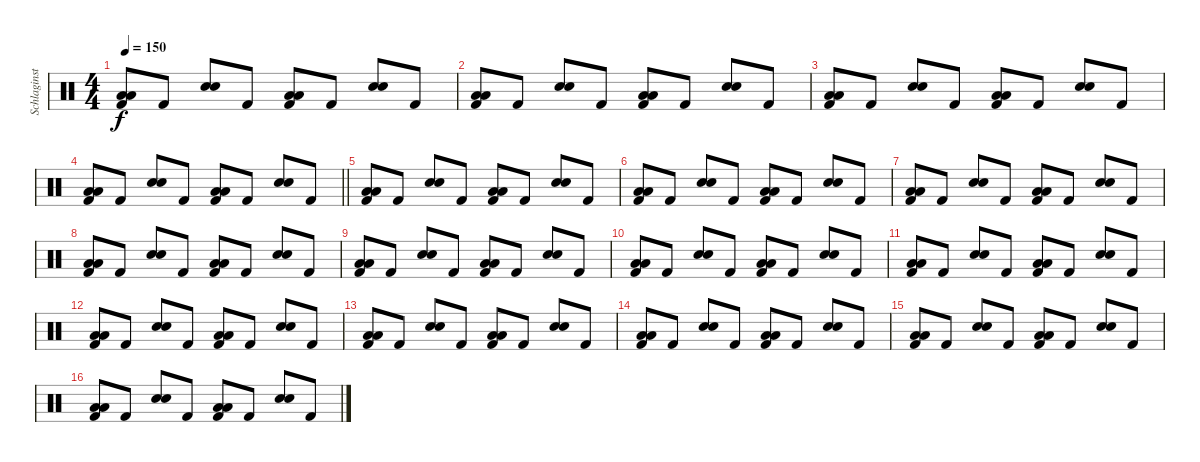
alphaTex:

\track ("Schlaginstrumente - Auswahl" "Schlaginst") {instrument percussion}
\staff {score}
\articulation defaults
\ts (4 4)
\tempo 150
\clef neutral
\ks c
("Low Tom (hit)" "Low Tom (hit)" "Kick (hit) 2").8{dy f} "Kick (hit) 2".8 ("Snare (hit) 2" "Snare (hit) 2").8{bd 120} "Kick (hit) 2".8 ("Low Tom (hit)" "Low Tom (hit)" "Kick (hit) 2").8 "Kick (hit) 2".8 ("Snare (hit) 2" "Snare (hit) 2").8{bd 120} "Kick (hit) 2".8 |
("Low Tom (hit)" "Low Tom (hit)" "Kick (hit) 2").8 "Kick (hit) 2".8 ("Snare (hit) 2" "Snare (hit) 2").8{bd 120} "Kick (hit) 2".8 ("Low Tom (hit)" "Low Tom (hit)" "Kick (hit) 2").8 "Kick (hit) 2".8 ("Snare (hit) 2" "Snare (hit) 2").8{bd 120} "Kick (hit) 2".8 |
("Low Tom (hit)" "Low Tom (hit)" "Kick (hit) 2").8 "Kick (hit) 2".8 ("Snare (hit) 2" "Snare (hit) 2").8{bd 120} "Kick (hit) 2".8 ("Low Tom (hit)" "Low Tom (hit)" "Kick (hit) 2").8 "Kick (hit) 2".8 ("Snare (hit) 2" "Snare (hit) 2").8{bd 120} "Kick (hit) 2".8 |
\barLineRight lightlight
("Low Tom (hit)" "Low Tom (hit)" "Kick (hit) 2").8 "Kick (hit) 2".8 ("Snare (hit) 2" "Snare (hit) 2").8{bd 120} "Kick (hit) 2".8 ("Low Tom (hit)" "Low Tom (hit)" "Kick (hit) 2").8 "Kick (hit) 2".8 ("Snare (hit) 2" "Snare (hit) 2").8{bd 120} "Kick (hit) 2".8 |
("Low Tom (hit)" "Low Tom (hit)" "Kick (hit) 2").8 "Kick (hit) 2".8 ("Snare (hit) 2" "Snare (hit) 2").8{bd 120} "Kick (hit) 2".8 ("Low Tom (hit)" "Low Tom (hit)" "Kick (hit) 2").8 "Kick (hit) 2".8 ("Snare (hit) 2" "Snare (hit) 2").8{bd 120} "Kick (hit) 2".8 |
("Low Tom (hit)" "Low Tom (hit)" "Kick (hit) 2").8 "Kick (hit) 2".8 ("Snare (hit) 2" "Snare (hit) 2").8{bd 120} "Kick (hit) 2".8 ("Low Tom (hit)" "Low Tom (hit)" "Kick (hit) 2").8 "Kick (hit) 2".8 ("Snare (hit) 2" "Snare (hit) 2").8{bd 120} "Kick (hit) 2".8 |
("Low Tom (hit)" "Low Tom (hit)" "Kick (hit) 2").8 "Kick (hit) 2".8 ("Snare (hit) 2" "Snare (hit) 2").8{bd 120} "Kick (hit) 2".8 ("Low Tom (hit)" "Low Tom (hit)" "Kick (hit) 2").8 "Kick (hit) 2".8 ("Snare (hit) 2" "Snare (hit) 2").8{bd 120} "Kick (hit) 2".8 |
("Low Tom (hit)" "Low Tom (hit)" "Kick (hit) 2").8 "Kick (hit) 2".8 ("Snare (hit) 2" "Snare (hit) 2").8{bd 120} "Kick (hit) 2".8 ("Low Tom (hit)" "Low Tom (hit)" "Kick (hit) 2").8 "Kick (hit) 2".8 ("Snare (hit) 2" "Snare (hit) 2").8{bd 120} "Kick (hit) 2".8 |
("Low Tom (hit)" "Low Tom (hit)" "Kick (hit) 2").8 "Kick (hit) 2".8 ("Snare (hit) 2" "Snare (hit) 2").8{bd 120} "Kick (hit) 2".8 ("Low Tom (hit)" "Low Tom (hit)" "Kick (hit) 2").8 "Kick (hit) 2".8 ("Snare (hit) 2" "Snare (hit) 2").8{bd 120} "Kick (hit) 2".8 |
("Low Tom (hit)" "Low Tom (hit)" "Kick (hit) 2").8 "Kick (hit) 2".8 ("Snare (hit) 2" "Snare (hit) 2").8{bd 120} "Kick (hit) 2".8 ("Low Tom (hit)" "Low Tom (hit)" "Kick (hit) 2").8 "Kick (hit) 2".8 ("Snare (hit) 2" "Snare (hit) 2").8{bd 120} "Kick (hit) 2".8 |
("Low Tom (hit)" "Low Tom (hit)" "Kick (hit) 2").8 "Kick (hit) 2".8 ("Snare (hit) 2" "Snare (hit) 2").8{bd 120} "Kick (hit) 2".8 ("Low Tom (hit)" "Low Tom (hit)" "Kick (hit) 2").8 "Kick (hit) 2".8 ("Snare (hit) 2" "Snare (hit) 2").8{bd 120} "Kick (hit) 2".8 |
("Low Tom (hit)" "Low Tom (hit)" "Kick (hit) 2").8 "Kick (hit) 2".8 ("Snare (hit) 2" "Snare (hit) 2").8{bd 120} "Kick (hit) 2".8 ("Low Tom (hit)" "Low Tom (hit)" "Kick (hit) 2").8 "Kick (hit) 2".8 ("Snare (hit) 2" "Snare (hit) 2").8{bd 120} "Kick (hit) 2".8 |
("Low Tom (hit)" "Low Tom (hit)" "Kick (hit) 2").8 "Kick (hit) 2".8 ("Snare (hit) 2" "Snare (hit) 2").8{bd 120} "Kick (hit) 2".8 ("Low Tom (hit)" "Low Tom (hit)" "Kick (hit) 2").8 "Kick (hit) 2".8 ("Snare (hit) 2" "Snare (hit) 2").8{bd 120} "Kick (hit) 2".8 |
("Low Tom (hit)" "Low Tom (hit)" "Kick (hit) 2").8 "Kick (hit) 2".8 ("Snare (hit) 2" "Snare (hit) 2").8{bd 120} "Kick (hit) 2".8 ("Low Tom (hit)" "Low Tom (hit)" "Kick (hit) 2").8 "Kick (hit) 2".8 ("Snare (hit) 2" "Snare (hit) 2").8{bd 120} "Kick (hit) 2".8 |
("Low Tom (hit)" "Low Tom (hit)" "Kick (hit) 2").8 "Kick (hit) 2".8 ("Snare (hit) 2" "Snare (hit) 2").8{bd 120} "Kick (hit) 2".8 ("Low Tom (hit)" "Low Tom (hit)" "Kick (hit) 2").8 "Kick (hit) 2".8 ("Snare (hit) 2" "Snare (hit) 2").8{bd 120} "Kick (hit) 2".8 |
("Low Tom (hit)" "Low Tom (hit)" "Kick (hit) 2").8 "Kick (hit) 2".8 ("Snare (hit) 2" "Snare (hit) 2").8{bd 120} "Kick (hit) 2".8 ("Low Tom (hit)" "Low Tom (hit)" "Kick (hit) 2").8 "Kick (hit) 2".8 ("Snare (hit) 2" "Snare (hit) 2").8{bd 120} "Kick (hit) 2".8
